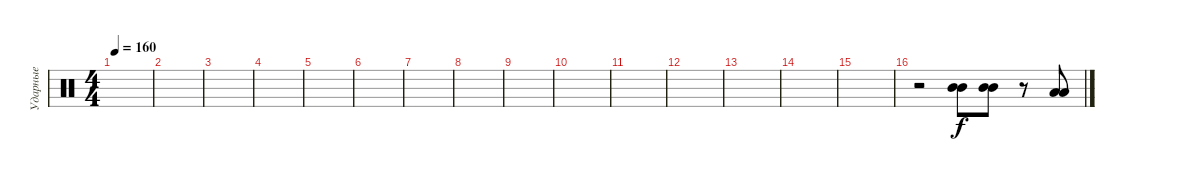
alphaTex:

\track ("Ударные" "Ударные") {instrument percussion}
\staff {score}
\articulation defaults
\ts (4 4)
\tempo 160
\clef neutral
\ks c
|
|
|
|
|
|
|
|
|
|
|
|
|
|
|
r.2 ("Mid Tom (hit)" "Mid Tom (hit)").8 ("Mid Tom (hit)" "Mid Tom (hit)").8 r.8 ("Low Tom (hit)" "Low Tom (hit)").8
